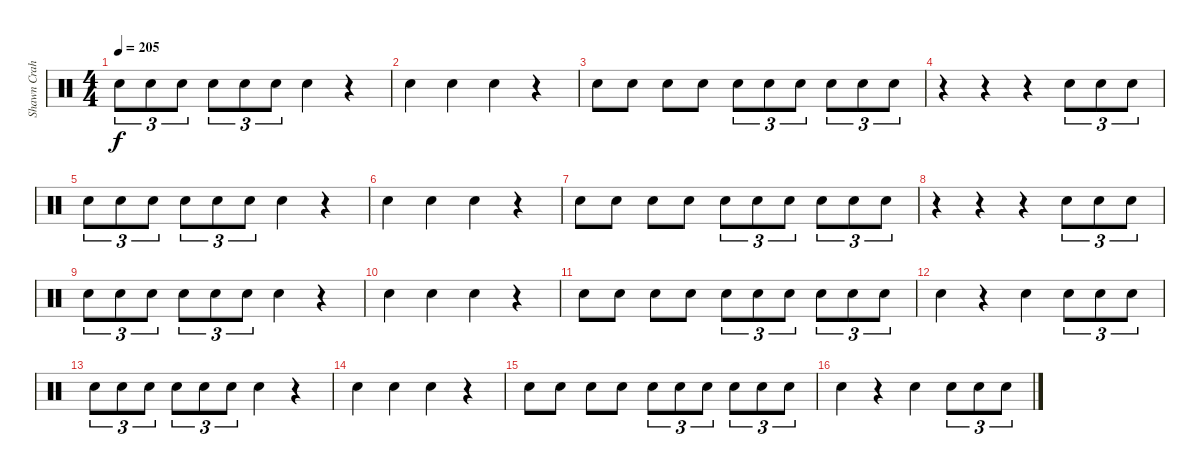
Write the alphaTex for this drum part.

\track ("Shawn Crahan" "Shawn Crah") {instrument percussion}
\staff {score}
\articulation defaults
\ts (4 4)
\tempo 205
\clef neutral
\ks c "Electric Snare (hit)".8{tu (3 2) dy f} "Electric Snare (hit)".8{tu (3 2)} "Electric Snare (hit)".8{tu (3 2)} "Electric Snare (hit)".8{tu (3 2)} "Electric Snare (hit)".8{tu (3 2)} "Electric Snare (hit)".8{tu (3 2)} "Electric Snare (hit)".4
r.4 |
"Electric Snare (hit)".4 "Electric Snare (hit)".4 "Electric Snare (hit)".4 r.4 |
"Electric Snare (hit)".8 "Electric Snare (hit)".8 "Electric Snare (hit)".8 "Electric Snare (hit)".8 "Electric Snare (hit)".8{tu (3 2)} "Electric Snare (hit)".8{tu (3 2)} "Electric Snare (hit)".8{tu (3 2)} "Electric Snare (hit)".8{tu (3 2)} "Electric Snare (hit)".8{tu (3 2)} "Electric Snare (hit)".8{tu (3 2)} |
r.4 r.4 r.4 "Electric Snare (hit)".8{tu (3 2)} "Electric Snare (hit)".8{tu (3 2)} "Electric Snare (hit)".8{tu (3 2)} |
"Electric Snare (hit)".8{tu (3 2)} "Electric Snare (hit)".8{tu (3 2)} "Electric Snare (hit)".8{tu (3 2)} "Electric Snare (hit)".8{tu (3 2)} "Electric Snare (hit)".8{tu (3 2)} "Electric Snare (hit)".8{tu (3 2)} "Electric Snare (hit)".4 r.4 |
"Electric Snare (hit)".4 "Electric Snare (hit)".4 "Electric Snare (hit)".4 r.4 |
"Electric Snare (hit)".8 "Electric Snare (hit)".8 "Electric Snare (hit)".8 "Electric Snare (hit)".8 "Electric Snare (hit)".8{tu (3 2)} "Electric Snare (hit)".8{tu (3 2)} "Electric Snare (hit)".8{tu (3 2)} "Electric Snare (hit)".8{tu (3 2)} "Electric Snare (hit)".8{tu (3 2)} "Electric Snare (hit)".8{tu (3 2)} |
r.4 r.4 r.4 "Electric Snare (hit)".8{tu (3 2)} "Electric Snare (hit)".8{tu (3 2)} "Electric Snare (hit)".8{tu (3 2)} |
"Electric Snare (hit)".8{tu (3 2)} "Electric Snare (hit)".8{tu (3 2)} "Electric Snare (hit)".8{tu (3 2)} "Electric Snare (hit)".8{tu (3 2)} "Electric Snare (hit)".8{tu (3 2)} "Electric Snare (hit)".8{tu (3 2)} "Electric Snare (hit)".4 r.4 |
"Electric Snare (hit)".4 "Electric Snare (hit)".4 "Electric Snare (hit)".4 r.4 |
"Electric Snare (hit)".8 "Electric Snare (hit)".8 "Electric Snare (hit)".8 "Electric Snare (hit)".8 "Electric Snare (hit)".8{tu (3 2)} "Electric Snare (hit)".8{tu (3 2)} "Electric Snare (hit)".8{tu (3 2)} "Electric Snare (hit)".8{tu (3 2)} "Electric Snare (hit)".8{tu (3 2)} "Electric Snare (hit)".8{tu (3 2)} |
"Electric Snare (hit)".4 r.4 "Electric Snare (hit)".4 "Electric Snare (hit)".8{tu (3 2)} "Electric Snare (hit)".8{tu (3 2)} "Electric Snare (hit)".8{tu (3 2)} |
"Electric Snare (hit)".8{tu (3 2)} "Electric Snare (hit)".8{tu (3 2)} "Electric Snare (hit)".8{tu (3 2)} "Electric Snare (hit)".8{tu (3 2)} "Electric Snare (hit)".8{tu (3 2)} "Electric Snare (hit)".8{tu (3 2)} "Electric Snare (hit)".4 r.4 |
"Electric Snare (hit)".4 "Electric Snare (hit)".4 "Electric Snare (hit)".4 r.4 |
"Electric Snare (hit)".8 "Electric Snare (hit)".8 "Electric Snare (hit)".8 "Electric Snare (hit)".8 "Electric Snare (hit)".8{tu (3 2)} "Electric Snare (hit)".8{tu (3 2)} "Electric Snare (hit)".8{tu (3 2)} "Electric Snare (hit)".8{tu (3 2)} "Electric Snare (hit)".8{tu (3 2)} "Electric Snare (hit)".8{tu (3 2)} |
"Electric Snare (hit)".4 r.4 "Electric Snare (hit)".4 "Electric Snare (hit)".8{tu (3 2)} "Electric Snare (hit)".8{tu (3 2)} "Electric Snare (hit)".8{tu (3 2)}
